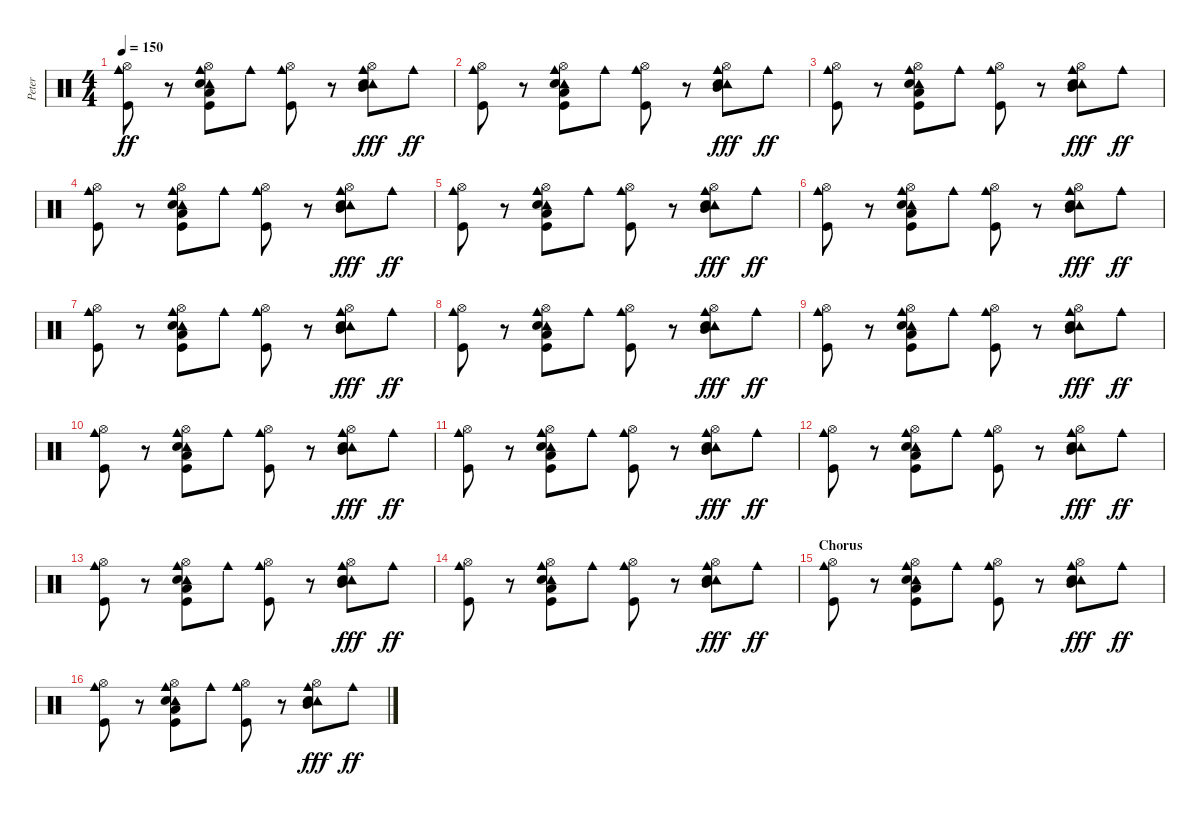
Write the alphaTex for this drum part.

\track ("Peter" "Peter") {instrument percussion}
\staff {score}
\articulation defaults
\ts (4 4)
\tempo 150
\clef neutral
\ks c
("Cowbell medium (hit)" "Hi-Hat (open)" "Kick (hit)").8{dy ff} r.8 ("Cowbell medium (hit)" "Tambourine (hit)" "Hi-Hat (open)" "Hand Clap (hit)" "Low Floor Tom (hit)" "Kick (hit)").8 "Cowbell medium (hit)".8 ("Cowbell medium (hit)" "Hi-Hat (open)" "Kick (hit)").8 r.8 ("Cowbell medium (hit)" "Tambourine (hit)" "Hi-Hat (open)" "Mid Tom (hit)" "Hand Clap (hit)").8{dy fff} "Cowbell medium (hit)".8{dy ff} |
("Cowbell medium (hit)" "Hi-Hat (open)" "Kick (hit)").8 r.8 ("Cowbell medium (hit)" "Tambourine (hit)" "Hi-Hat (open)" "Hand Clap (hit)" "Low Floor Tom (hit)" "Kick (hit)").8 "Cowbell medium (hit)".8 ("Cowbell medium (hit)" "Hi-Hat (open)" "Kick (hit)").8 r.8 ("Cowbell medium (hit)" "Tambourine (hit)" "Hi-Hat (open)" "Mid Tom (hit)" "Hand Clap (hit)").8{dy fff} "Cowbell medium (hit)".8{dy ff} |
("Cowbell medium (hit)" "Hi-Hat (open)" "Kick (hit)").8 r.8 ("Cowbell medium (hit)" "Tambourine (hit)" "Hi-Hat (open)" "Hand Clap (hit)" "Low Floor Tom (hit)" "Kick (hit)").8 "Cowbell medium (hit)".8 ("Cowbell medium (hit)" "Hi-Hat (open)" "Kick (hit)").8 r.8 ("Cowbell medium (hit)" "Tambourine (hit)" "Hi-Hat (open)" "Mid Tom (hit)" "Hand Clap (hit)").8{dy fff} "Cowbell medium (hit)".8{dy ff} |
("Cowbell medium (hit)" "Hi-Hat (open)" "Kick (hit)").8 r.8 ("Cowbell medium (hit)" "Tambourine (hit)" "Hi-Hat (open)" "Hand Clap (hit)" "Low Floor Tom (hit)" "Kick (hit)").8 "Cowbell medium (hit)".8 ("Cowbell medium (hit)" "Hi-Hat (open)" "Kick (hit)").8 r.8 ("Cowbell medium (hit)" "Tambourine (hit)" "Hi-Hat (open)" "Mid Tom (hit)" "Hand Clap (hit)").8{dy fff} "Cowbell medium (hit)".8{dy ff} |
("Cowbell medium (hit)" "Hi-Hat (open)" "Kick (hit)").8 r.8 ("Cowbell medium (hit)" "Tambourine (hit)" "Hi-Hat (open)" "Hand Clap (hit)" "Low Floor Tom (hit)" "Kick (hit)").8 "Cowbell medium (hit)".8 ("Cowbell medium (hit)" "Hi-Hat (open)" "Kick (hit)").8 r.8 ("Cowbell medium (hit)" "Tambourine (hit)" "Hi-Hat (open)" "Mid Tom (hit)" "Hand Clap (hit)").8{dy fff} "Cowbell medium (hit)".8{dy ff} |
("Cowbell medium (hit)" "Hi-Hat (open)" "Kick (hit)").8 r.8 ("Cowbell medium (hit)" "Tambourine (hit)" "Hi-Hat (open)" "Hand Clap (hit)" "Low Floor Tom (hit)" "Kick (hit)").8 "Cowbell medium (hit)".8 ("Cowbell medium (hit)" "Hi-Hat (open)" "Kick (hit)").8 r.8 ("Cowbell medium (hit)" "Tambourine (hit)" "Hi-Hat (open)" "Mid Tom (hit)" "Hand Clap (hit)").8{dy fff} "Cowbell medium (hit)".8{dy ff} |
("Cowbell medium (hit)" "Hi-Hat (open)" "Kick (hit)").8 r.8 ("Cowbell medium (hit)" "Tambourine (hit)" "Hi-Hat (open)" "Hand Clap (hit)" "Low Floor Tom (hit)" "Kick (hit)").8 "Cowbell medium (hit)".8 ("Cowbell medium (hit)" "Hi-Hat (open)" "Kick (hit)").8 r.8 ("Cowbell medium (hit)" "Tambourine (hit)" "Hi-Hat (open)" "Mid Tom (hit)" "Hand Clap (hit)").8{dy fff} "Cowbell medium (hit)".8{dy ff} |
("Cowbell medium (hit)" "Hi-Hat (open)" "Kick (hit)").8 r.8 ("Cowbell medium (hit)" "Tambourine (hit)" "Hi-Hat (open)" "Hand Clap (hit)" "Low Floor Tom (hit)" "Kick (hit)").8 "Cowbell medium (hit)".8 ("Cowbell medium (hit)" "Hi-Hat (open)" "Kick (hit)").8 r.8 ("Cowbell medium (hit)" "Tambourine (hit)" "Hi-Hat (open)" "Mid Tom (hit)" "Hand Clap (hit)").8{dy fff} "Cowbell medium (hit)".8{dy ff} |
("Cowbell medium (hit)" "Hi-Hat (open)" "Kick (hit)").8 r.8 ("Cowbell medium (hit)" "Tambourine (hit)" "Hi-Hat (open)" "Hand Clap (hit)" "Low Floor Tom (hit)" "Kick (hit)").8 "Cowbell medium (hit)".8 ("Cowbell medium (hit)" "Hi-Hat (open)" "Kick (hit)").8 r.8 ("Cowbell medium (hit)" "Tambourine (hit)" "Hi-Hat (open)" "Mid Tom (hit)" "Hand Clap (hit)").8{dy fff} "Cowbell medium (hit)".8{dy ff} |
("Cowbell medium (hit)" "Hi-Hat (open)" "Kick (hit)").8 r.8 ("Cowbell medium (hit)" "Tambourine (hit)" "Hi-Hat (open)" "Hand Clap (hit)" "Low Floor Tom (hit)" "Kick (hit)").8 "Cowbell medium (hit)".8 ("Cowbell medium (hit)" "Hi-Hat (open)" "Kick (hit)").8 r.8 ("Cowbell medium (hit)" "Tambourine (hit)" "Hi-Hat (open)" "Mid Tom (hit)" "Hand Clap (hit)").8{dy fff} "Cowbell medium (hit)".8{dy ff} |
("Cowbell medium (hit)" "Hi-Hat (open)" "Kick (hit)").8 r.8 ("Cowbell medium (hit)" "Tambourine (hit)" "Hi-Hat (open)" "Hand Clap (hit)" "Low Floor Tom (hit)" "Kick (hit)").8 "Cowbell medium (hit)".8 ("Cowbell medium (hit)" "Hi-Hat (open)" "Kick (hit)").8 r.8 ("Cowbell medium (hit)" "Tambourine (hit)" "Hi-Hat (open)" "Mid Tom (hit)" "Hand Clap (hit)").8{dy fff} "Cowbell medium (hit)".8{dy ff} |
("Cowbell medium (hit)" "Hi-Hat (open)" "Kick (hit)").8 r.8 ("Cowbell medium (hit)" "Tambourine (hit)" "Hi-Hat (open)" "Hand Clap (hit)" "Low Floor Tom (hit)" "Kick (hit)").8 "Cowbell medium (hit)".8 ("Cowbell medium (hit)" "Hi-Hat (open)" "Kick (hit)").8 r.8 ("Cowbell medium (hit)" "Tambourine (hit)" "Hi-Hat (open)" "Mid Tom (hit)" "Hand Clap (hit)").8{dy fff} "Cowbell medium (hit)".8{dy ff} |
("Cowbell medium (hit)" "Hi-Hat (open)" "Kick (hit)").8 r.8 ("Cowbell medium (hit)" "Tambourine (hit)" "Hi-Hat (open)" "Hand Clap (hit)" "Low Floor Tom (hit)" "Kick (hit)").8 "Cowbell medium (hit)".8 ("Cowbell medium (hit)" "Hi-Hat (open)" "Kick (hit)").8 r.8 ("Cowbell medium (hit)" "Tambourine (hit)" "Hi-Hat (open)" "Mid Tom (hit)" "Hand Clap (hit)").8{dy fff} "Cowbell medium (hit)".8{dy ff} |
("Cowbell medium (hit)" "Hi-Hat (open)" "Kick (hit)").8 r.8 ("Cowbell medium (hit)" "Tambourine (hit)" "Hi-Hat (open)" "Hand Clap (hit)" "Low Floor Tom (hit)" "Kick (hit)").8 "Cowbell medium (hit)".8 ("Cowbell medium (hit)" "Hi-Hat (open)" "Kick (hit)").8 r.8 ("Cowbell medium (hit)" "Tambourine (hit)" "Hi-Hat (open)" "Mid Tom (hit)" "Hand Clap (hit)").8{dy fff} "Cowbell medium (hit)".8{dy ff} |
\section ("" "Chorus")
("Cowbell medium (hit)" "Hi-Hat (open)" "Kick (hit)").8 r.8 ("Cowbell medium (hit)" "Tambourine (hit)" "Hi-Hat (open)" "Hand Clap (hit)" "Low Floor Tom (hit)" "Kick (hit)").8 "Cowbell medium (hit)".8 ("Cowbell medium (hit)" "Hi-Hat (open)" "Kick (hit)").8 r.8 ("Cowbell medium (hit)" "Tambourine (hit)" "Hi-Hat (open)" "Mid Tom (hit)" "Hand Clap (hit)").8{dy fff} "Cowbell medium (hit)".8{dy ff} |
("Cowbell medium (hit)" "Hi-Hat (open)" "Kick (hit)").8 r.8 ("Cowbell medium (hit)" "Tambourine (hit)" "Hi-Hat (open)" "Hand Clap (hit)" "Low Floor Tom (hit)" "Kick (hit)").8 "Cowbell medium (hit)".8 ("Cowbell medium (hit)" "Hi-Hat (open)" "Kick (hit)").8 r.8 ("Cowbell medium (hit)" "Tambourine (hit)" "Hi-Hat (open)" "Mid Tom (hit)" "Hand Clap (hit)").8{dy fff} "Cowbell medium (hit)".8{dy ff}
